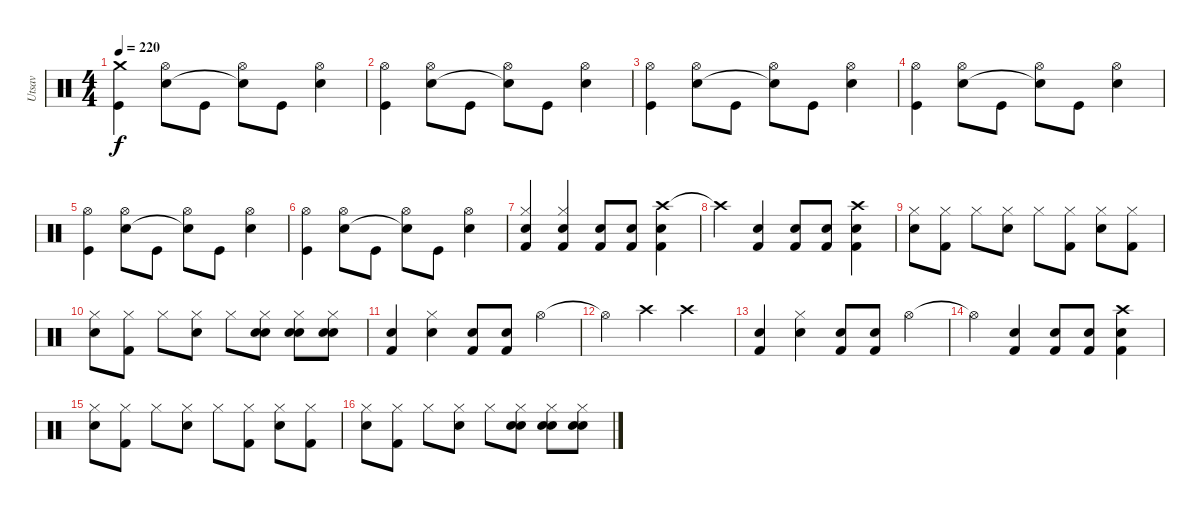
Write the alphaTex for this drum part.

\track ("Utsav" "Utsav") {instrument percussion}
\staff {score}
\articulation defaults
\ts (4 4)
\tempo 220
\clef neutral
\ks c
("Crash medium (hit)" "Kick (hit)").4{dy f} ("Hi-Hat (open)" "Electric Snare (hit)").8 "Kick (hit)".8 ("Hi-Hat (open)" "Snare (hit)"{t}).8 "Kick (hit)".8 ("Hi-Hat (open)" "Electric Snare (hit)").4 |
("Hi-Hat (open)" "Kick (hit)").4 ("Hi-Hat (open)" "Electric Snare (hit)").8 "Kick (hit)".8 ("Hi-Hat (open)" "Snare (hit)"{t}).8 "Kick (hit)".8 ("Hi-Hat (open)" "Electric Snare (hit)").4 |
("Hi-Hat (open)" "Kick (hit)").4 ("Hi-Hat (open)" "Electric Snare (hit)").8 "Kick (hit)".8 ("Hi-Hat (open)" "Snare (hit)"{t}).8 "Kick (hit)".8 ("Hi-Hat (open)" "Electric Snare (hit)").4 |
("Hi-Hat (open)" "Kick (hit)").4 ("Hi-Hat (open)" "Electric Snare (hit)").8 "Kick (hit)".8 ("Hi-Hat (open)" "Snare (hit)"{t}).8 "Kick (hit)".8 ("Hi-Hat (open)" "Electric Snare (hit)").4 |
("Hi-Hat (open)" "Kick (hit)").4 ("Hi-Hat (open)" "Electric Snare (hit)").8 "Kick (hit)".8 ("Hi-Hat (open)" "Snare (hit)"{t}).8 "Kick (hit)".8 ("Hi-Hat (open)" "Electric Snare (hit)").4 |
("Hi-Hat (open)" "Kick (hit)").4 ("Hi-Hat (open)" "Electric Snare (hit)").8 "Kick (hit)".8 ("Hi-Hat (open)" "Snare (hit)"{t}).8 "Kick (hit)".8 ("Hi-Hat (open)" "Electric Snare (hit)").4 |
("Snare (hit) 2" "Hi-Hat (closed)" "Kick (hit) 2").4 ("Snare (hit) 2" "Hi-Hat (closed)" "Kick (hit) 2").4 ("Snare (hit) 2" "Kick (hit) 2").8 ("Snare (hit) 2" "Kick (hit) 2").8 ("Crash high (hit)" "Snare (hit) 2" "Kick (hit) 2").4 |
"Crash high (hit)"{t}.4 ("Kick (hit) 2" "Snare (hit) 2").4 ("Kick (hit) 2" "Snare (hit) 2").8 ("Kick (hit) 2" "Snare (hit) 2").8 ("Crash high (hit)" "Kick (hit) 2" "Snare (hit) 2").4 |
("Hi-Hat (closed)" "Snare (hit) 2").8 ("Hi-Hat (closed)" "Kick (hit) 2").8 "Hi-Hat (closed)".8 ("Hi-Hat (closed)" "Snare (hit) 2").8 "Hi-Hat (closed)".8 ("Hi-Hat (closed)" "Kick (hit) 2").8 ("Hi-Hat (closed)" "Snare (hit) 2").8 ("Hi-Hat (closed)" "Kick (hit) 2").8 |
("Hi-Hat (closed)" "Snare (hit) 2").8 ("Hi-Hat (closed)" "Kick (hit) 2").8 "Hi-Hat (closed)".8 ("Hi-Hat (closed)" "Snare (hit) 2").8 "Hi-Hat (closed)".8 ("Hi-Hat (closed)" "Snare (hit) 2" "Snare (hit) 2").8 ("Hi-Hat (closed)" "Snare (hit) 2" "Snare (hit) 2").8 ("Hi-Hat (closed)" "Snare (hit) 2" "Snare (hit) 2").8 |
("Electric Snare (hit)" "Kick (hit) 2").4 ("Hi-Hat (closed)" "Snare (hit) 2").4 ("Electric Snare (hit)" "Kick (hit) 2").8 ("Electric Snare (hit)" "Kick (hit) 2").8 "Hi-Hat (open)".4 |
"Hi-Hat (open)"{t}.4 "Crash high (hit)".4 "Crash high (hit)".2 |
("Electric Snare (hit)" "Kick (hit) 2").4 ("Hi-Hat (closed)" "Snare (hit) 2").4 ("Electric Snare (hit)" "Kick (hit) 2").8 ("Electric Snare (hit)" "Kick (hit) 2").8 "Hi-Hat (open)".4 |
"Hi-Hat (open)"{t}.4 ("Snare (hit) 2" "Kick (hit) 2").4 ("Snare (hit) 2" "Kick (hit) 2").8 ("Snare (hit) 2" "Kick (hit) 2").8 ("Crash high (hit)" "Snare (hit) 2" "Kick (hit) 2").4 |
("Hi-Hat (closed)" "Snare (hit) 2").8 ("Hi-Hat (closed)" "Kick (hit) 2").8 "Hi-Hat (closed)".8 ("Hi-Hat (closed)" "Snare (hit) 2").8 "Hi-Hat (closed)".8 ("Hi-Hat (closed)" "Kick (hit) 2").8 ("Hi-Hat (closed)" "Snare (hit) 2").8 ("Hi-Hat (closed)" "Kick (hit) 2").8 |
("Hi-Hat (closed)" "Snare (hit) 2").8 ("Hi-Hat (closed)" "Kick (hit) 2").8 "Hi-Hat (closed)".8 ("Hi-Hat (closed)" "Snare (hit) 2").8 "Hi-Hat (closed)".8 ("Hi-Hat (closed)" "Snare (hit) 2" "Snare (hit) 2").8 ("Hi-Hat (closed)" "Snare (hit) 2" "Snare (hit) 2").8 ("Hi-Hat (closed)" "Snare (hit) 2" "Snare (hit) 2").8
